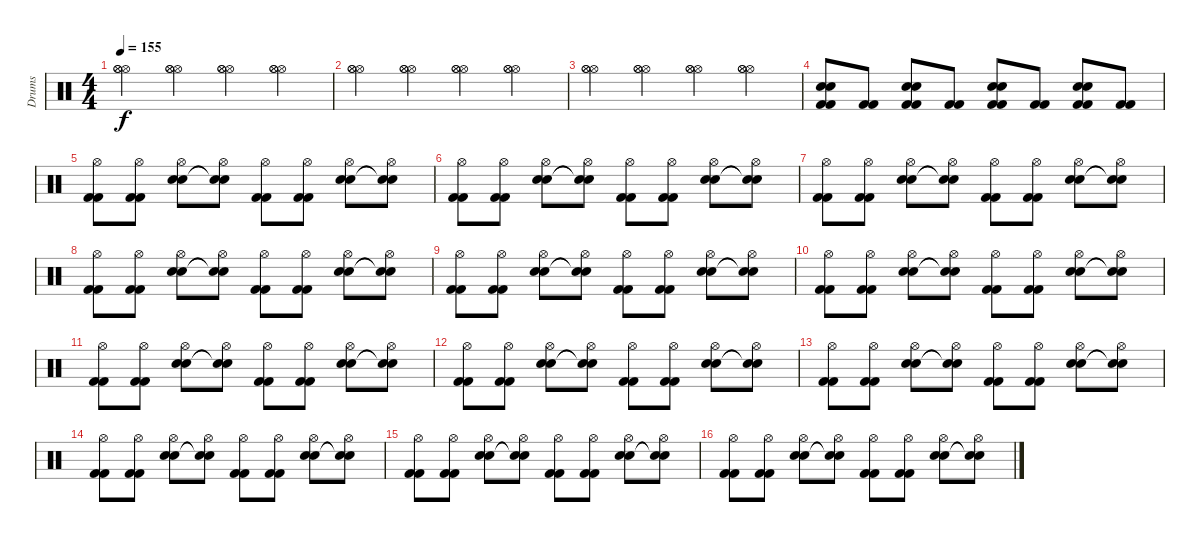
\track ("Drums" "Drums") {instrument percussion}
\staff {score}
\articulation defaults
\ts (4 4)
\tempo 155
\clef neutral
\ks c
("Hi-Hat (open)" "Hi-Hat (open)" "Hi-Hat (open)").4{dy f} ("Hi-Hat (open)" "Hi-Hat (open)" "Hi-Hat (open)").4 ("Hi-Hat (open)" "Hi-Hat (open)" "Hi-Hat (open)").4 ("Hi-Hat (open)" "Hi-Hat (open)" "Hi-Hat (open)").4 |
("Hi-Hat (open)" "Hi-Hat (open)" "Hi-Hat (open)").4 ("Hi-Hat (open)" "Hi-Hat (open)" "Hi-Hat (open)").4 ("Hi-Hat (open)" "Hi-Hat (open)" "Hi-Hat (open)").4 ("Hi-Hat (open)" "Hi-Hat (open)" "Hi-Hat (open)").4 |
("Hi-Hat (open)" "Hi-Hat (open)" "Hi-Hat (open)").4 ("Hi-Hat (open)" "Hi-Hat (open)" "Hi-Hat (open)").4 ("Hi-Hat (open)" "Hi-Hat (open)" "Hi-Hat (open)").4 ("Hi-Hat (open)" "Hi-Hat (open)" "Hi-Hat (open)").4 |
("Electric Snare (hit)" "Electric Snare (hit)" "Kick (hit) 2" "Kick (hit) 2").8 ("Kick (hit) 2" "Kick (hit) 2").8 ("Electric Snare (hit)" "Electric Snare (hit)" "Kick (hit) 2" "Kick (hit) 2").8 ("Kick (hit) 2" "Kick (hit) 2").8 ("Electric Snare (hit)" "Electric Snare (hit)" "Kick (hit) 2" "Kick (hit) 2").8 ("Kick (hit) 2" "Kick (hit) 2").8 ("Electric Snare (hit)" "Electric Snare (hit)" "Kick (hit) 2" "Kick (hit) 2").8 ("Kick (hit) 2" "Kick (hit) 2").8 |
("Hi-Hat (open)" "Kick (hit) 2" "Kick (hit) 2").8 ("Hi-Hat (open)" "Kick (hit) 2" "Kick (hit) 2").8 ("Hi-Hat (open)" "Electric Snare (hit)" "Electric Snare (hit)").8 ("Hi-Hat (open)" "Snare (hit)"{t} "Snare (hit)"{t}).8 ("Hi-Hat (open)" "Kick (hit) 2" "Kick (hit) 2").8 ("Hi-Hat (open)" "Kick (hit) 2" "Kick (hit) 2").8 ("Hi-Hat (open)" "Electric Snare (hit)" "Electric Snare (hit)").8 ("Hi-Hat (open)" "Snare (hit)"{t} "Snare (hit)"{t}).8 |
("Hi-Hat (open)" "Kick (hit) 2" "Kick (hit) 2").8 ("Hi-Hat (open)" "Kick (hit) 2" "Kick (hit) 2").8 ("Hi-Hat (open)" "Electric Snare (hit)" "Electric Snare (hit)").8 ("Hi-Hat (open)" "Snare (hit)"{t} "Snare (hit)"{t}).8 ("Hi-Hat (open)" "Kick (hit) 2" "Kick (hit) 2").8 ("Hi-Hat (open)" "Kick (hit) 2" "Kick (hit) 2").8 ("Hi-Hat (open)" "Electric Snare (hit)" "Electric Snare (hit)").8 ("Hi-Hat (open)" "Snare (hit)"{t} "Snare (hit)"{t}).8 |
("Hi-Hat (open)" "Kick (hit) 2" "Kick (hit) 2").8 ("Hi-Hat (open)" "Kick (hit) 2" "Kick (hit) 2").8 ("Hi-Hat (open)" "Electric Snare (hit)" "Electric Snare (hit)").8 ("Hi-Hat (open)" "Snare (hit)"{t} "Snare (hit)"{t}).8 ("Hi-Hat (open)" "Kick (hit) 2" "Kick (hit) 2").8 ("Hi-Hat (open)" "Kick (hit) 2" "Kick (hit) 2").8 ("Hi-Hat (open)" "Electric Snare (hit)" "Electric Snare (hit)").8 ("Hi-Hat (open)" "Snare (hit)"{t} "Snare (hit)"{t}).8 |
("Hi-Hat (open)" "Kick (hit) 2" "Kick (hit) 2").8 ("Hi-Hat (open)" "Kick (hit) 2" "Kick (hit) 2").8 ("Hi-Hat (open)" "Electric Snare (hit)" "Electric Snare (hit)").8 ("Hi-Hat (open)" "Snare (hit)"{t} "Snare (hit)"{t}).8 ("Hi-Hat (open)" "Kick (hit) 2" "Kick (hit) 2").8 ("Hi-Hat (open)" "Kick (hit) 2" "Kick (hit) 2").8 ("Hi-Hat (open)" "Electric Snare (hit)" "Electric Snare (hit)").8 ("Hi-Hat (open)" "Snare (hit)"{t} "Snare (hit)"{t}).8 |
("Hi-Hat (open)" "Kick (hit) 2" "Kick (hit) 2").8 ("Hi-Hat (open)" "Kick (hit) 2" "Kick (hit) 2").8 ("Hi-Hat (open)" "Electric Snare (hit)" "Electric Snare (hit)").8 ("Hi-Hat (open)" "Snare (hit)"{t} "Snare (hit)"{t}).8 ("Hi-Hat (open)" "Kick (hit) 2" "Kick (hit) 2").8 ("Hi-Hat (open)" "Kick (hit) 2" "Kick (hit) 2").8 ("Hi-Hat (open)" "Electric Snare (hit)" "Electric Snare (hit)").8 ("Hi-Hat (open)" "Snare (hit)"{t} "Snare (hit)"{t}).8 |
("Hi-Hat (open)" "Kick (hit) 2" "Kick (hit) 2").8 ("Hi-Hat (open)" "Kick (hit) 2" "Kick (hit) 2").8 ("Hi-Hat (open)" "Electric Snare (hit)" "Electric Snare (hit)").8 ("Hi-Hat (open)" "Snare (hit)"{t} "Snare (hit)"{t}).8 ("Hi-Hat (open)" "Kick (hit) 2" "Kick (hit) 2").8 ("Hi-Hat (open)" "Kick (hit) 2" "Kick (hit) 2").8 ("Hi-Hat (open)" "Electric Snare (hit)" "Electric Snare (hit)").8 ("Hi-Hat (open)" "Snare (hit)"{t} "Snare (hit)"{t}).8 |
("Hi-Hat (open)" "Kick (hit) 2" "Kick (hit) 2").8 ("Hi-Hat (open)" "Kick (hit) 2" "Kick (hit) 2").8 ("Hi-Hat (open)" "Electric Snare (hit)" "Electric Snare (hit)").8 ("Hi-Hat (open)" "Snare (hit)"{t} "Snare (hit)"{t}).8 ("Hi-Hat (open)" "Kick (hit) 2" "Kick (hit) 2").8 ("Hi-Hat (open)" "Kick (hit) 2" "Kick (hit) 2").8 ("Hi-Hat (open)" "Electric Snare (hit)" "Electric Snare (hit)").8 ("Hi-Hat (open)" "Snare (hit)"{t} "Snare (hit)"{t}).8 |
("Hi-Hat (open)" "Kick (hit) 2" "Kick (hit) 2").8 ("Hi-Hat (open)" "Kick (hit) 2" "Kick (hit) 2").8 ("Hi-Hat (open)" "Electric Snare (hit)" "Electric Snare (hit)").8 ("Hi-Hat (open)" "Snare (hit)"{t} "Snare (hit)"{t}).8 ("Hi-Hat (open)" "Kick (hit) 2" "Kick (hit) 2").8 ("Hi-Hat (open)" "Kick (hit) 2" "Kick (hit) 2").8 ("Hi-Hat (open)" "Electric Snare (hit)" "Electric Snare (hit)").8 ("Hi-Hat (open)" "Snare (hit)"{t} "Snare (hit)"{t}).8 |
("Hi-Hat (open)" "Kick (hit) 2" "Kick (hit) 2").8 ("Hi-Hat (open)" "Kick (hit) 2" "Kick (hit) 2").8 ("Hi-Hat (open)" "Electric Snare (hit)" "Electric Snare (hit)").8 ("Hi-Hat (open)" "Snare (hit)"{t} "Snare (hit)"{t}).8 ("Hi-Hat (open)" "Kick (hit) 2" "Kick (hit) 2").8 ("Hi-Hat (open)" "Kick (hit) 2" "Kick (hit) 2").8 ("Hi-Hat (open)" "Electric Snare (hit)" "Electric Snare (hit)").8 ("Hi-Hat (open)" "Snare (hit)"{t} "Snare (hit)"{t}).8 |
("Hi-Hat (open)" "Kick (hit) 2" "Kick (hit) 2").8 ("Hi-Hat (open)" "Kick (hit) 2" "Kick (hit) 2").8 ("Hi-Hat (open)" "Electric Snare (hit)" "Electric Snare (hit)").8 ("Hi-Hat (open)" "Snare (hit)"{t} "Snare (hit)"{t}).8 ("Hi-Hat (open)" "Kick (hit) 2" "Kick (hit) 2").8 ("Hi-Hat (open)" "Kick (hit) 2" "Kick (hit) 2").8 ("Hi-Hat (open)" "Electric Snare (hit)" "Electric Snare (hit)").8 ("Hi-Hat (open)" "Snare (hit)"{t} "Snare (hit)"{t}).8 |
("Hi-Hat (open)" "Kick (hit) 2" "Kick (hit) 2").8 ("Hi-Hat (open)" "Kick (hit) 2" "Kick (hit) 2").8 ("Hi-Hat (open)" "Electric Snare (hit)" "Electric Snare (hit)").8 ("Hi-Hat (open)" "Snare (hit)"{t} "Snare (hit)"{t}).8 ("Hi-Hat (open)" "Kick (hit) 2" "Kick (hit) 2").8 ("Hi-Hat (open)" "Kick (hit) 2" "Kick (hit) 2").8 ("Hi-Hat (open)" "Electric Snare (hit)" "Electric Snare (hit)").8 ("Hi-Hat (open)" "Snare (hit)"{t} "Snare (hit)"{t}).8 |
("Hi-Hat (open)" "Kick (hit) 2" "Kick (hit) 2").8 ("Hi-Hat (open)" "Kick (hit) 2" "Kick (hit) 2").8 ("Hi-Hat (open)" "Electric Snare (hit)" "Electric Snare (hit)").8 ("Hi-Hat (open)" "Snare (hit)"{t} "Snare (hit)"{t}).8 ("Hi-Hat (open)" "Kick (hit) 2" "Kick (hit) 2").8 ("Hi-Hat (open)" "Kick (hit) 2" "Kick (hit) 2").8 ("Hi-Hat (open)" "Electric Snare (hit)" "Electric Snare (hit)").8 ("Hi-Hat (open)" "Snare (hit)"{t} "Snare (hit)"{t}).8
